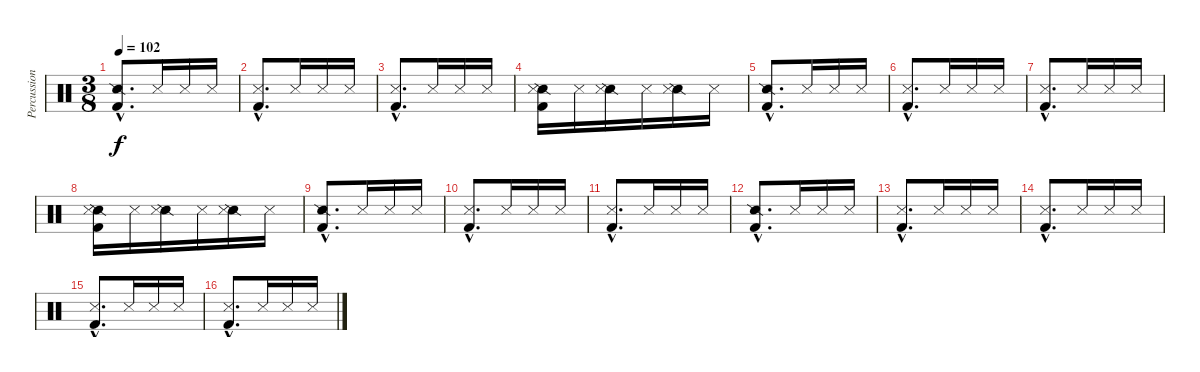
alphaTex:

\track ("Percussions" "Percussion") {instrument percussion}
\staff {score}
\articulation defaults
\ts (3 8)
\tempo 102
\clef neutral
\ks c
("Snare (side stick) 2"{hac} "Kick (hit) 2"{hac}).8{d dy f} "Snare (side stick) 3".16 "Snare (side stick) 3".16 "Snare (side stick) 3".16 |
("Snare (side stick) 3"{hac} "Kick (hit) 2"{hac}).8{d} "Snare (side stick) 3".16 "Snare (side stick) 3".16 "Snare (side stick) 3".16 |
("Snare (side stick) 3"{hac} "Kick (hit) 2"{hac}).8{d} "Snare (side stick) 3".16 "Snare (side stick) 3".16 "Snare (side stick) 3".16 |
("Snare (side stick) 2" "Snare (side stick) 3" "Kick (hit) 2").16 "Snare (side stick) 3".16 ("Snare (side stick) 2" "Snare (side stick) 3").16 "Snare (side stick) 3".16 ("Snare (side stick) 2" "Snare (side stick) 3").16 "Snare (side stick) 3".16 |
("Snare (side stick) 2"{hac} "Kick (hit) 2"{hac}).8{d} "Snare (side stick) 3".16 "Snare (side stick) 3".16 "Snare (side stick) 3".16 |
("Snare (side stick) 3"{hac} "Kick (hit) 2"{hac}).8{d} "Snare (side stick) 3".16 "Snare (side stick) 3".16 "Snare (side stick) 3".16 |
("Snare (side stick) 3"{hac} "Kick (hit) 2"{hac}).8{d} "Snare (side stick) 3".16 "Snare (side stick) 3".16 "Snare (side stick) 3".16 |
("Snare (side stick) 2" "Snare (side stick) 3" "Kick (hit) 2").16 "Snare (side stick) 3".16 ("Snare (side stick) 2" "Snare (side stick) 3").16 "Snare (side stick) 3".16 ("Snare (side stick) 2" "Snare (side stick) 3").16 "Snare (side stick) 3".16 |
("Snare (side stick) 2"{hac} "Kick (hit) 2"{hac}).8{d} "Snare (side stick) 3".16 "Snare (side stick) 3".16 "Snare (side stick) 3".16 |
("Snare (side stick) 3"{hac} "Kick (hit) 2"{hac}).8{d} "Snare (side stick) 3".16 "Snare (side stick) 3".16 "Snare (side stick) 3".16 |
("Snare (side stick) 3"{hac} "Kick (hit) 2"{hac}).8{d} "Snare (side stick) 3".16 "Snare (side stick) 3".16 "Snare (side stick) 3".16 |
("Snare (side stick) 2"{hac} "Kick (hit) 2"{hac}).8{d} "Snare (side stick) 3".16 "Snare (side stick) 3".16 "Snare (side stick) 3".16 |
("Snare (side stick) 3"{hac} "Kick (hit) 2"{hac}).8{d} "Snare (side stick) 3".16 "Snare (side stick) 3".16 "Snare (side stick) 3".16 |
("Snare (side stick) 3"{hac} "Kick (hit) 2"{hac}).8{d} "Snare (side stick) 3".16 "Snare (side stick) 3".16 "Snare (side stick) 3".16 |
("Snare (side stick) 3"{hac} "Kick (hit) 2"{hac}).8{d} "Snare (side stick) 3".16 "Snare (side stick) 3".16 "Snare (side stick) 3".16 |
("Snare (side stick) 3"{hac} "Kick (hit) 2"{hac}).8{d} "Snare (side stick) 3".16 "Snare (side stick) 3".16 "Snare (side stick) 3".16
